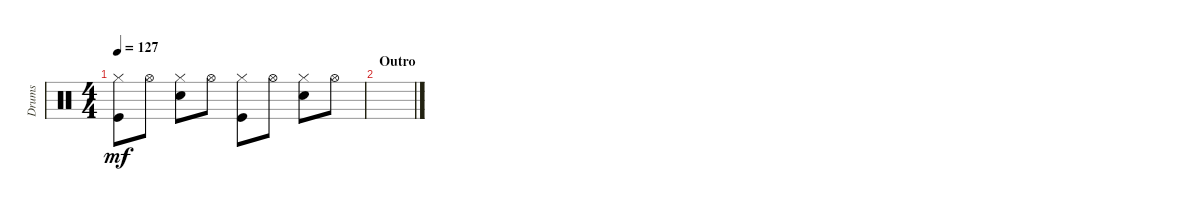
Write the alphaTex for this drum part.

\track ("Drums" "Drums") {instrument percussion}
\staff {score}
\articulation defaults
\ts (4 4)
\tempo 127
\clef neutral
\ks c
("Kick (hit)" "Hi-Hat (closed)").8{dy mf} "Hi-Hat (open)".8 ("Hi-Hat (closed)" "Snare (hit) 2").8 "Hi-Hat (open)".8 ("Hi-Hat (closed)" "Kick (hit)").8 "Hi-Hat (open)".8 ("Hi-Hat (closed)" "Snare (hit) 2").8 "Hi-Hat (open)".8 |
\section ("" "Outro")
